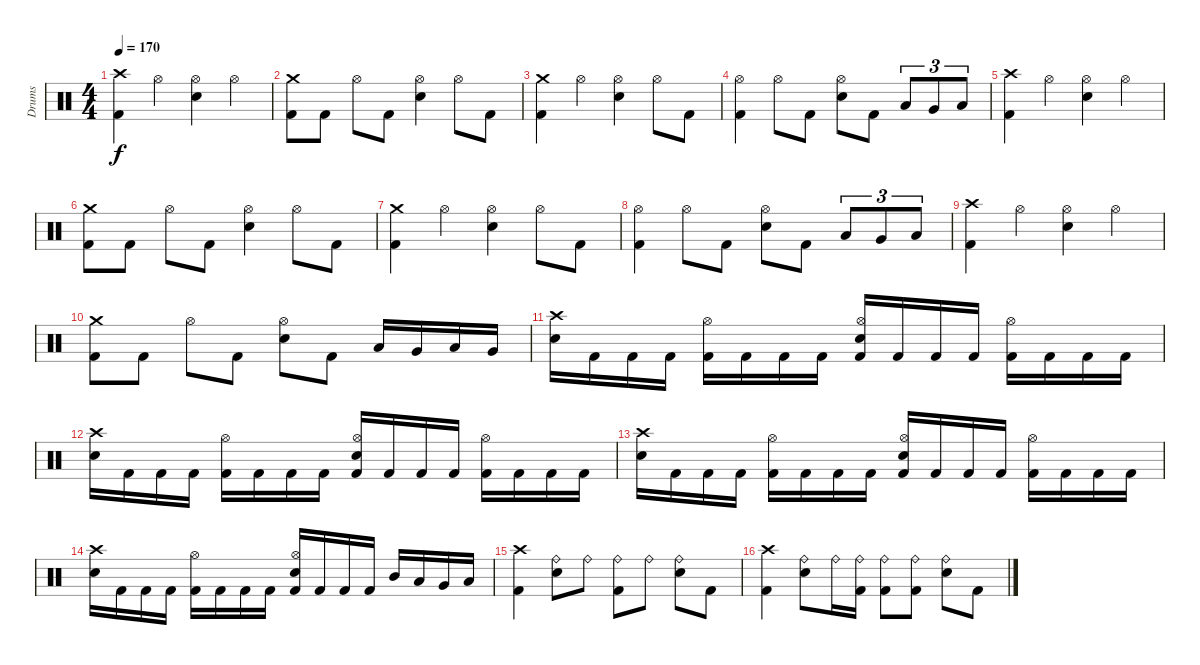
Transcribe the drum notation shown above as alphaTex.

\track ("Drums" "Drums") {instrument percussion}
\staff {score}
\articulation defaults
\ts (4 4)
\tempo 170
\clef neutral
\ks c
("Kick (hit) 2" "Crash high (hit)").4{dy f} "Hi-Hat (open)".4 ("Snare (hit) 2" "Hi-Hat (open)").4 "Hi-Hat (open)".4 |
("Kick (hit) 2" "Crash medium (hit)").8 "Kick (hit) 2".8 "Hi-Hat (open)".8 "Kick (hit) 2".8 ("Snare (hit) 2" "Hi-Hat (open)").4 "Hi-Hat (open)".8 "Kick (hit) 2".8 |
("Kick (hit) 2" "Crash medium (hit)").4 "Hi-Hat (open)".4 ("Snare (hit) 2" "Hi-Hat (open)").4 "Hi-Hat (open)".8 "Kick (hit) 2".8 |
("Kick (hit) 2" "Hi-Hat (open)").4 "Hi-Hat (open)".8 "Kick (hit) 2".8 ("Snare (hit) 2" "Hi-Hat (open)").8 "Kick (hit) 2".8 "Low Tom (hit)".8{tu (3 2)} "Very Low Tom (hit)".8{tu (3 2)} "Low Floor Tom (hit)".8{tu (3 2)} |
("Kick (hit) 2" "Crash high (hit)").4 "Hi-Hat (open)".4 ("Snare (hit) 2" "Hi-Hat (open)").4 "Hi-Hat (open)".4 |
("Kick (hit) 2" "Crash medium (hit)").8 "Kick (hit) 2".8 "Hi-Hat (open)".8 "Kick (hit) 2".8 ("Snare (hit) 2" "Hi-Hat (open)").4 "Hi-Hat (open)".8 "Kick (hit) 2".8 |
("Kick (hit) 2" "Crash medium (hit)").4 "Hi-Hat (open)".4 ("Snare (hit) 2" "Hi-Hat (open)").4 "Hi-Hat (open)".8 "Kick (hit) 2".8 |
("Kick (hit) 2" "Hi-Hat (open)").4 "Hi-Hat (open)".8 "Kick (hit) 2".8 ("Snare (hit) 2" "Hi-Hat (open)").8 "Kick (hit) 2".8 "Low Tom (hit)".8{tu (3 2)} "Very Low Tom (hit)".8{tu (3 2)} "Low Floor Tom (hit)".8{tu (3 2)} |
("Kick (hit) 2" "Crash high (hit)").4 "Hi-Hat (open)".4 ("Snare (hit) 2" "Hi-Hat (open)").4 "Hi-Hat (open)".4 |
("Kick (hit) 2" "Crash medium (hit)").8 "Kick (hit) 2".8 "Hi-Hat (open)".8 "Kick (hit) 2".8 ("Snare (hit) 2" "Hi-Hat (open)").8 "Kick (hit) 2".8 "Low Tom (hit)".16 "Very Low Tom (hit)".16 "Low Tom (hit)".16 "Very Low Tom (hit)".16 |
("Snare (hit) 2" "Crash high (hit)").16 "Kick (hit) 2".16 "Kick (hit) 2".16 "Kick (hit) 2".16 ("Kick (hit) 2" "Hi-Hat (open)").16 "Kick (hit) 2".16 "Kick (hit) 2".16 "Kick (hit) 2".16 ("Kick (hit) 2" "Snare (hit) 2" "Hi-Hat (open)").16 "Kick (hit) 2".16 "Kick (hit) 2".16 "Kick (hit) 2".16 ("Kick (hit) 2" "Hi-Hat (open)").16 "Kick (hit) 2".16 "Kick (hit) 2".16 "Kick (hit) 2".16 |
("Snare (hit) 2" "Crash high (hit)").16 "Kick (hit) 2".16 "Kick (hit) 2".16 "Kick (hit) 2".16 ("Kick (hit) 2" "Hi-Hat (open)").16 "Kick (hit) 2".16 "Kick (hit) 2".16 "Kick (hit) 2".16 ("Kick (hit) 2" "Snare (hit) 2" "Hi-Hat (open)").16 "Kick (hit) 2".16 "Kick (hit) 2".16 "Kick (hit) 2".16 ("Kick (hit) 2" "Hi-Hat (open)").16 "Kick (hit) 2".16 "Kick (hit) 2".16 "Kick (hit) 2".16 |
("Snare (hit) 2" "Crash high (hit)").16 "Kick (hit) 2".16 "Kick (hit) 2".16 "Kick (hit) 2".16 ("Kick (hit) 2" "Hi-Hat (open)").16 "Kick (hit) 2".16 "Kick (hit) 2".16 "Kick (hit) 2".16 ("Kick (hit) 2" "Snare (hit) 2" "Hi-Hat (open)").16 "Kick (hit) 2".16 "Kick (hit) 2".16 "Kick (hit) 2".16 ("Kick (hit) 2" "Hi-Hat (open)").16 "Kick (hit) 2".16 "Kick (hit) 2".16 "Kick (hit) 2".16 |
("Snare (hit) 2" "Crash high (hit)").16 "Kick (hit) 2".16 "Kick (hit) 2".16 "Kick (hit) 2".16 ("Kick (hit) 2" "Hi-Hat (open)").16 "Kick (hit) 2".16 "Kick (hit) 2".16 "Kick (hit) 2".16 ("Kick (hit) 2" "Snare (hit) 2" "Hi-Hat (open)").16 "Kick (hit) 2".16 "Kick (hit) 2".16 "Kick (hit) 2".16 "Mid Tom (hit)".16 "Low Tom (hit)".16 "Very Low Tom (hit)".16 "Low Floor Tom (hit)".16 |
("Kick (hit) 2" "Crash high (hit)").4 ("Snare (hit) 2" "Ride (bell)").8 "Ride (bell)".8 ("Kick (hit) 2" "Ride (bell)").8 "Ride (bell)".8 ("Snare (hit) 2" "Ride (bell)").8 "Kick (hit) 2".8 |
("Kick (hit) 2" "Crash high (hit)").4 ("Snare (hit) 2" "Ride (bell)").8 "Ride (bell)".16 ("Kick (hit) 2" "Ride (bell)").16 ("Kick (hit) 2" "Ride (bell)").8 ("Kick (hit) 2" "Ride (bell)").8 ("Snare (hit) 2" "Ride (bell)").8 "Kick (hit) 2".8
